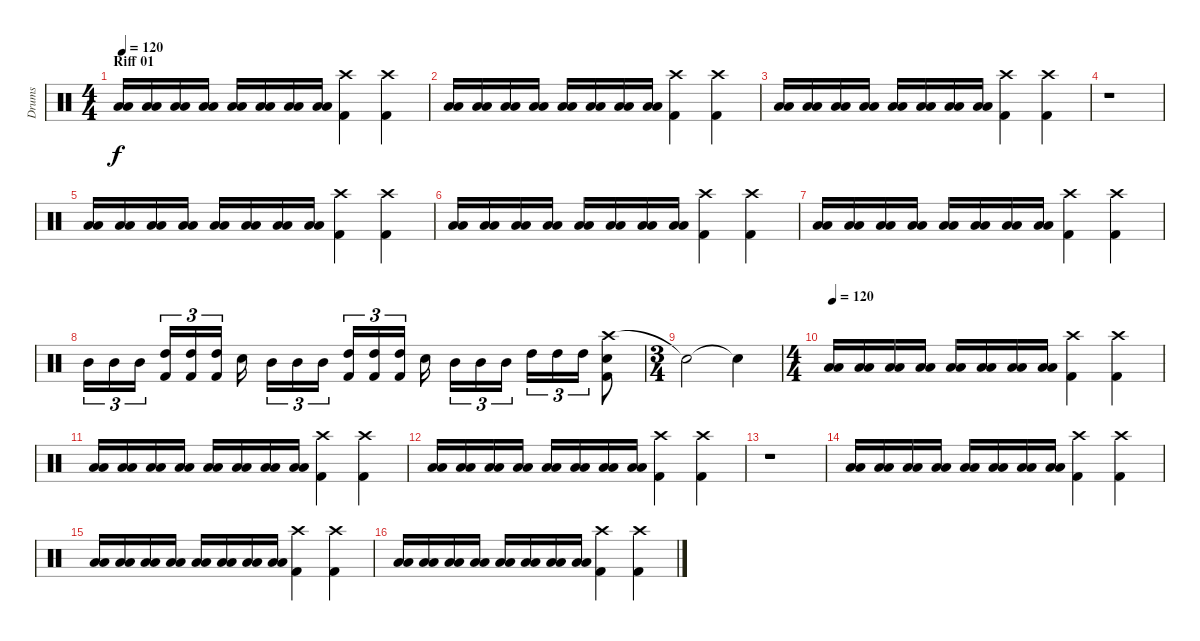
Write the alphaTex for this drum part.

\track ("Drums" "Drums") {instrument percussion}
\staff {score}
\articulation defaults
\ts (4 4)
\section ("" "Riff 01")
\tempo 120
\clef neutral
\ks c
("Low Floor Tom (hit)" "Low Floor Tom (hit)").16{dy f} ("Low Floor Tom (hit)" "Low Floor Tom (hit)").16 ("Low Floor Tom (hit)" "Low Floor Tom (hit)").16 ("Low Floor Tom (hit)" "Low Floor Tom (hit)").16 ("Low Floor Tom (hit)" "Low Floor Tom (hit)").16 ("Low Floor Tom (hit)" "Low Floor Tom (hit)").16 ("Low Floor Tom (hit)" "Low Floor Tom (hit)").16 ("Low Floor Tom (hit)" "Low Floor Tom (hit)").16 ("Crash high (hit)" "Kick (hit) 2").4 ("Crash high (hit)" "Kick (hit) 2").4 |
("Low Floor Tom (hit)" "Low Floor Tom (hit)").16 ("Low Floor Tom (hit)" "Low Floor Tom (hit)").16 ("Low Floor Tom (hit)" "Low Floor Tom (hit)").16 ("Low Floor Tom (hit)" "Low Floor Tom (hit)").16 ("Low Floor Tom (hit)" "Low Floor Tom (hit)").16 ("Low Floor Tom (hit)" "Low Floor Tom (hit)").16 ("Low Floor Tom (hit)" "Low Floor Tom (hit)").16 ("Low Floor Tom (hit)" "Low Floor Tom (hit)").16 ("Crash high (hit)" "Kick (hit) 2").4 ("Crash high (hit)" "Kick (hit) 2").4 |
("Low Floor Tom (hit)" "Low Floor Tom (hit)").16 ("Low Floor Tom (hit)" "Low Floor Tom (hit)").16 ("Low Floor Tom (hit)" "Low Floor Tom (hit)").16 ("Low Floor Tom (hit)" "Low Floor Tom (hit)").16 ("Low Floor Tom (hit)" "Low Floor Tom (hit)").16 ("Low Floor Tom (hit)" "Low Floor Tom (hit)").16 ("Low Floor Tom (hit)" "Low Floor Tom (hit)").16 ("Low Floor Tom (hit)" "Low Floor Tom (hit)").16 ("Crash high (hit)" "Kick (hit) 2").4 ("Crash high (hit)" "Kick (hit) 2").4 |
r.1 |
("Low Floor Tom (hit)" "Low Floor Tom (hit)").16 ("Low Floor Tom (hit)" "Low Floor Tom (hit)").16 ("Low Floor Tom (hit)" "Low Floor Tom (hit)").16 ("Low Floor Tom (hit)" "Low Floor Tom (hit)").16 ("Low Floor Tom (hit)" "Low Floor Tom (hit)").16 ("Low Floor Tom (hit)" "Low Floor Tom (hit)").16 ("Low Floor Tom (hit)" "Low Floor Tom (hit)").16 ("Low Floor Tom (hit)" "Low Floor Tom (hit)").16 ("Crash high (hit)" "Kick (hit) 2").4 ("Crash high (hit)" "Kick (hit) 2").4 |
("Low Floor Tom (hit)" "Low Floor Tom (hit)").16 ("Low Floor Tom (hit)" "Low Floor Tom (hit)").16 ("Low Floor Tom (hit)" "Low Floor Tom (hit)").16 ("Low Floor Tom (hit)" "Low Floor Tom (hit)").16 ("Low Floor Tom (hit)" "Low Floor Tom (hit)").16 ("Low Floor Tom (hit)" "Low Floor Tom (hit)").16 ("Low Floor Tom (hit)" "Low Floor Tom (hit)").16 ("Low Floor Tom (hit)" "Low Floor Tom (hit)").16 ("Crash high (hit)" "Kick (hit) 2").4 ("Crash high (hit)" "Kick (hit) 2").4 |
("Low Floor Tom (hit)" "Low Floor Tom (hit)").16 ("Low Floor Tom (hit)" "Low Floor Tom (hit)").16 ("Low Floor Tom (hit)" "Low Floor Tom (hit)").16 ("Low Floor Tom (hit)" "Low Floor Tom (hit)").16 ("Low Floor Tom (hit)" "Low Floor Tom (hit)").16 ("Low Floor Tom (hit)" "Low Floor Tom (hit)").16 ("Low Floor Tom (hit)" "Low Floor Tom (hit)").16 ("Low Floor Tom (hit)" "Low Floor Tom (hit)").16 ("Crash high (hit)" "Kick (hit) 2").4 ("Crash high (hit)" "Kick (hit) 2").4 |
"Mid Tom (hit)".16{tu (3 2)} "Mid Tom (hit)".16{tu (3 2)} "Mid Tom (hit)".16{tu (3 2)} ("High Tom (hit)" "Kick (hit) 2").16{tu (3 2)} ("High Tom (hit)" "Kick (hit) 2").16{tu (3 2)} ("High Tom (hit)" "Kick (hit) 2").16{tu (3 2)} "Electric Snare (hit)".16 "Mid Tom (hit)".16{tu (3 2)} "Mid Tom (hit)".16{tu (3 2)} "Mid Tom (hit)".16{tu (3 2)} ("High Tom (hit)" "Kick (hit) 2").16{tu (3 2)} ("High Tom (hit)" "Kick (hit) 2").16{tu (3 2)} ("High Tom (hit)" "Kick (hit) 2").16{tu (3 2)} "Electric Snare (hit)".16 "Mid Tom (hit)".16{tu (3 2)} "Mid Tom (hit)".16{tu (3 2)} "Mid Tom (hit)".16{tu (3 2)} "High Tom (hit)".16{tu (3 2)} "High Tom (hit)".16{tu (3 2)} "High Tom (hit)".16{tu (3 2)} ("Crash high (hit)" "Electric Snare (hit)" "Kick (hit) 2").8 |
\ts (3 4)
"Snare (hit)"{t}.2 "Snare (hit)"{t}.4 |
\ts (4 4)
\tempo 120
("Low Floor Tom (hit)" "Low Floor Tom (hit)").16 ("Low Floor Tom (hit)" "Low Floor Tom (hit)").16 ("Low Floor Tom (hit)" "Low Floor Tom (hit)").16 ("Low Floor Tom (hit)" "Low Floor Tom (hit)").16 ("Low Floor Tom (hit)" "Low Floor Tom (hit)").16 ("Low Floor Tom (hit)" "Low Floor Tom (hit)").16 ("Low Floor Tom (hit)" "Low Floor Tom (hit)").16 ("Low Floor Tom (hit)" "Low Floor Tom (hit)").16 ("Crash high (hit)" "Kick (hit) 2").4 ("Crash high (hit)" "Kick (hit) 2").4 |
("Low Floor Tom (hit)" "Low Floor Tom (hit)").16 ("Low Floor Tom (hit)" "Low Floor Tom (hit)").16 ("Low Floor Tom (hit)" "Low Floor Tom (hit)").16 ("Low Floor Tom (hit)" "Low Floor Tom (hit)").16 ("Low Floor Tom (hit)" "Low Floor Tom (hit)").16 ("Low Floor Tom (hit)" "Low Floor Tom (hit)").16 ("Low Floor Tom (hit)" "Low Floor Tom (hit)").16 ("Low Floor Tom (hit)" "Low Floor Tom (hit)").16 ("Crash high (hit)" "Kick (hit) 2").4 ("Crash high (hit)" "Kick (hit) 2").4 |
("Low Floor Tom (hit)" "Low Floor Tom (hit)").16 ("Low Floor Tom (hit)" "Low Floor Tom (hit)").16 ("Low Floor Tom (hit)" "Low Floor Tom (hit)").16 ("Low Floor Tom (hit)" "Low Floor Tom (hit)").16 ("Low Floor Tom (hit)" "Low Floor Tom (hit)").16 ("Low Floor Tom (hit)" "Low Floor Tom (hit)").16 ("Low Floor Tom (hit)" "Low Floor Tom (hit)").16 ("Low Floor Tom (hit)" "Low Floor Tom (hit)").16 ("Crash high (hit)" "Kick (hit) 2").4 ("Crash high (hit)" "Kick (hit) 2").4 |
r.1 |
("Low Floor Tom (hit)" "Low Floor Tom (hit)").16 ("Low Floor Tom (hit)" "Low Floor Tom (hit)").16 ("Low Floor Tom (hit)" "Low Floor Tom (hit)").16 ("Low Floor Tom (hit)" "Low Floor Tom (hit)").16 ("Low Floor Tom (hit)" "Low Floor Tom (hit)").16 ("Low Floor Tom (hit)" "Low Floor Tom (hit)").16 ("Low Floor Tom (hit)" "Low Floor Tom (hit)").16 ("Low Floor Tom (hit)" "Low Floor Tom (hit)").16 ("Crash high (hit)" "Kick (hit) 2").4 ("Crash high (hit)" "Kick (hit) 2").4 |
("Low Floor Tom (hit)" "Low Floor Tom (hit)").16 ("Low Floor Tom (hit)" "Low Floor Tom (hit)").16 ("Low Floor Tom (hit)" "Low Floor Tom (hit)").16 ("Low Floor Tom (hit)" "Low Floor Tom (hit)").16 ("Low Floor Tom (hit)" "Low Floor Tom (hit)").16 ("Low Floor Tom (hit)" "Low Floor Tom (hit)").16 ("Low Floor Tom (hit)" "Low Floor Tom (hit)").16 ("Low Floor Tom (hit)" "Low Floor Tom (hit)").16 ("Crash high (hit)" "Kick (hit) 2").4 ("Crash high (hit)" "Kick (hit) 2").4 |
("Low Floor Tom (hit)" "Low Floor Tom (hit)").16 ("Low Floor Tom (hit)" "Low Floor Tom (hit)").16 ("Low Floor Tom (hit)" "Low Floor Tom (hit)").16 ("Low Floor Tom (hit)" "Low Floor Tom (hit)").16 ("Low Floor Tom (hit)" "Low Floor Tom (hit)").16 ("Low Floor Tom (hit)" "Low Floor Tom (hit)").16 ("Low Floor Tom (hit)" "Low Floor Tom (hit)").16 ("Low Floor Tom (hit)" "Low Floor Tom (hit)").16 ("Crash high (hit)" "Kick (hit) 2").4 ("Crash high (hit)" "Kick (hit) 2").4
